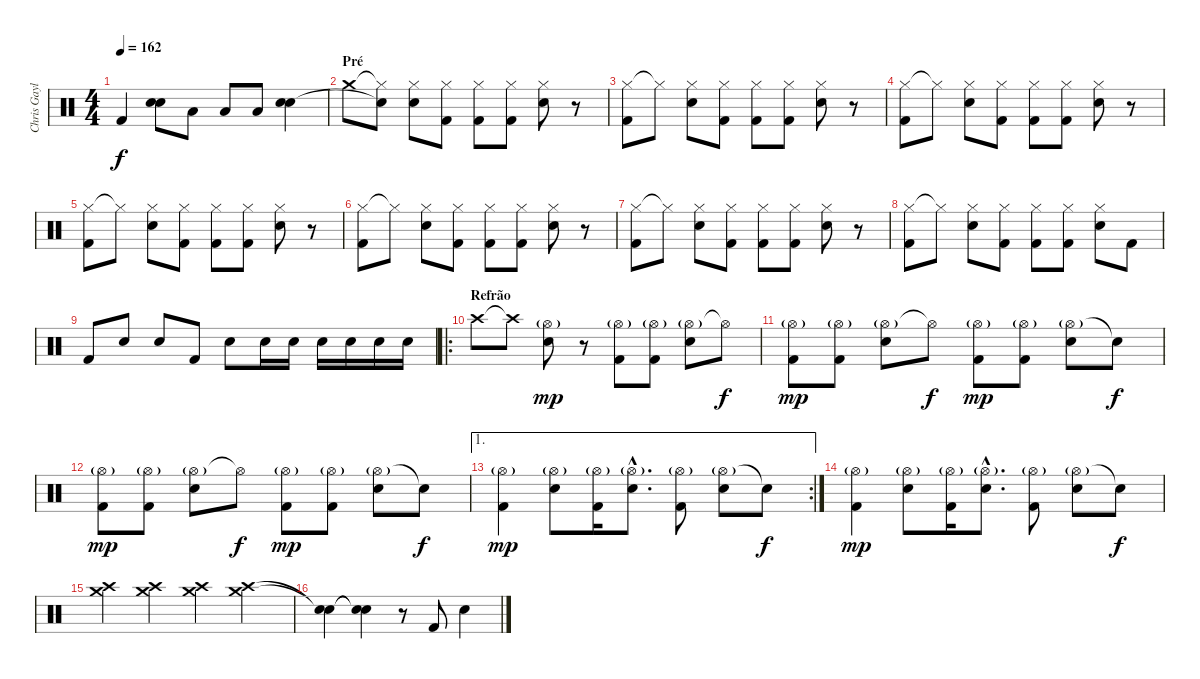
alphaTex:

\track ("Chris Gaylor" "Chris Gayl") {instrument percussion}
\staff {score}
\articulation defaults
\ts (4 4)
\tempo 162
\clef neutral
\ks c "Kick (hit) 2".4{dy f}
("Snare (hit) 2" "Snare (hit) 2").8 "Low Floor Tom (hit)".8 "Low Floor Tom (hit)".8 "Low Tom (hit)".8 ("Snare (hit) 2" "Snare (hit) 2").4 |
\section ("" "Pré")
"Crash medium (hit)".8 ("Hi-Hat (closed)"{t} "Snare (hit)"{t}).8 ("Hi-Hat (closed)" "Snare (hit) 2").8 ("Hi-Hat (closed)" "Kick (hit) 2").8 ("Hi-Hat (closed)" "Kick (hit) 2").8 ("Hi-Hat (closed)" "Kick (hit) 2").8 ("Hi-Hat (closed)" "Snare (hit) 2").8 r.8 |
("Hi-Hat (closed)" "Kick (hit) 2").8 "Hi-Hat (closed)"{t}.8 ("Hi-Hat (closed)" "Snare (hit) 2").8 ("Hi-Hat (closed)" "Kick (hit) 2").8 ("Hi-Hat (closed)" "Kick (hit) 2").8 ("Hi-Hat (closed)" "Kick (hit) 2").8 ("Hi-Hat (closed)" "Snare (hit) 2").8 r.8 |
("Hi-Hat (closed)" "Kick (hit) 2").8 "Hi-Hat (closed)"{t}.8 ("Hi-Hat (closed)" "Snare (hit) 2").8 ("Hi-Hat (closed)" "Kick (hit) 2").8 ("Hi-Hat (closed)" "Kick (hit) 2").8 ("Hi-Hat (closed)" "Kick (hit) 2").8 ("Hi-Hat (closed)" "Snare (hit) 2").8 r.8 |
("Hi-Hat (closed)" "Kick (hit) 2").8 "Hi-Hat (closed)"{t}.8 ("Hi-Hat (closed)" "Snare (hit) 2").8 ("Hi-Hat (closed)" "Kick (hit) 2").8 ("Hi-Hat (closed)" "Kick (hit) 2").8 ("Hi-Hat (closed)" "Kick (hit) 2").8 ("Hi-Hat (closed)" "Snare (hit) 2").8 r.8 |
("Hi-Hat (closed)" "Kick (hit) 2").8 "Hi-Hat (closed)"{t}.8 ("Hi-Hat (closed)" "Snare (hit) 2").8 ("Hi-Hat (closed)" "Kick (hit) 2").8 ("Hi-Hat (closed)" "Kick (hit) 2").8 ("Hi-Hat (closed)" "Kick (hit) 2").8 ("Hi-Hat (closed)" "Snare (hit) 2").8 r.8 |
("Hi-Hat (closed)" "Kick (hit) 2").8 "Hi-Hat (closed)"{t}.8 ("Hi-Hat (closed)" "Snare (hit) 2").8 ("Hi-Hat (closed)" "Kick (hit) 2").8 ("Hi-Hat (closed)" "Kick (hit) 2").8 ("Hi-Hat (closed)" "Kick (hit) 2").8 ("Hi-Hat (closed)" "Snare (hit) 2").8 r.8 |
("Hi-Hat (closed)" "Kick (hit) 2").8 "Hi-Hat (closed)"{t}.8 ("Hi-Hat (closed)" "Snare (hit) 2").8 ("Hi-Hat (closed)" "Kick (hit) 2").8 ("Hi-Hat (closed)" "Kick (hit) 2").8 ("Hi-Hat (closed)" "Kick (hit) 2").8 ("Hi-Hat (closed)" "Snare (hit) 2").8 "Kick (hit) 2".8 |
"Kick (hit) 2".8 "Snare (hit) 2".8 "Snare (hit) 2".8 "Kick (hit) 2".8 "Snare (hit) 2".8 "Snare (hit) 2".16 "Snare (hit) 2".16 "Snare (hit) 2".16 "Snare (hit) 2".16 "Snare (hit) 2".16 "Snare (hit) 2".16 |
\ro
\section ("" "Refrão")
"Crash high (hit)".8 "Crash high (hit)"{t}.8 ("Hi-Hat (open)"{g} "Snare (hit) 2").8{dy mp} r.8 ("Hi-Hat (open)"{g} "Kick (hit) 2").8 ("Hi-Hat (open)"{g} "Kick (hit) 2").8 ("Hi-Hat (open)"{g} "Snare (hit) 2").8 "Hi-Hat (open)"{t}.8{dy f} |
("Hi-Hat (open)"{g} "Kick (hit) 2").8{dy mp} ("Hi-Hat (open)"{g} "Kick (hit) 2").8 ("Hi-Hat (open)"{g} "Snare (hit) 2").8 "Hi-Hat (open)"{t}.8{dy f} ("Hi-Hat (open)"{g} "Kick (hit) 2").8{dy mp} ("Hi-Hat (open)"{g} "Kick (hit) 2").8 ("Hi-Hat (open)"{g} "Snare (hit) 2").8 "Snare (hit)"{t}.8{dy f} |
("Hi-Hat (open)"{g} "Kick (hit) 2").8{dy mp} ("Hi-Hat (open)"{g} "Kick (hit) 2").8 ("Hi-Hat (open)"{g} "Snare (hit) 2").8 "Hi-Hat (open)"{t}.8{dy f} ("Hi-Hat (open)"{g} "Kick (hit) 2").8{dy mp} ("Hi-Hat (open)"{g} "Kick (hit) 2").8 ("Hi-Hat (open)"{g} "Snare (hit) 2").8 "Snare (hit)"{t}.8{dy f} |
\ae 1
\rc 2
("Hi-Hat (open)"{g} "Kick (hit) 2").4{dy mp} ("Hi-Hat (open)"{g} "Snare (hit) 2").8 ("Hi-Hat (open)"{g} "Kick (hit) 2").16 ("Hi-Hat (open)"{g hac} "Snare (hit) 2"{hac}).8{d} ("Hi-Hat (open)"{g} "Kick (hit) 2").8 ("Hi-Hat (open)"{g} "Snare (hit) 2").8 "Snare (hit)"{t}.8{dy f} |
("Hi-Hat (open)"{g} "Kick (hit) 2").4{dy mp} ("Hi-Hat (open)"{g} "Snare (hit) 2").8 ("Hi-Hat (open)"{g} "Kick (hit) 2").16 ("Hi-Hat (open)"{g hac} "Snare (hit) 2"{hac}).8{d} ("Hi-Hat (open)"{g} "Kick (hit) 2").8 ("Hi-Hat (open)"{g} "Snare (hit) 2").8 "Snare (hit)"{t}.8{dy f} |
("Crash medium (hit)" "Crash high (hit)").4 ("Crash medium (hit)" "Crash high (hit)").4 ("Crash medium (hit)" "Crash high (hit)").4 ("Crash medium (hit)" "Crash high (hit)").4 |
("Snare (hit)"{t} "Snare (hit)"{t}).4 ("Snare (hit)"{t} "Snare (hit)"{t}).4 r.8 "Kick (hit) 2".8 "Snare (hit) 2".4
